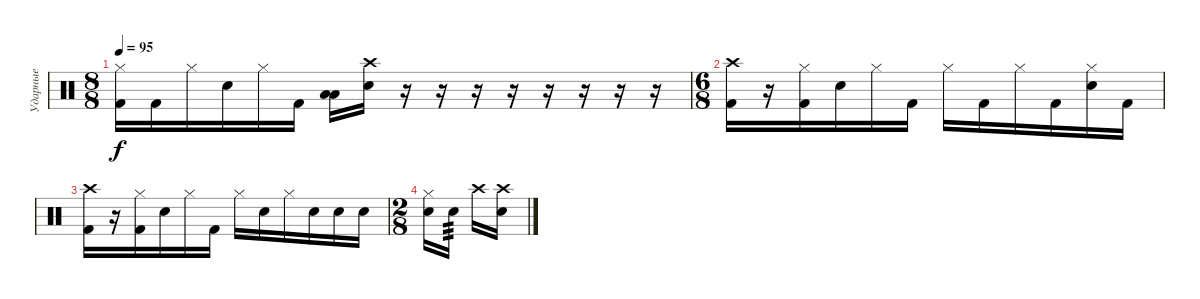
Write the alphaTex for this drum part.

\track ("Ударные" "Ударные") {instrument percussion}
\staff {score}
\articulation defaults
\ts (8 8)
\tempo 95
\clef neutral
\ks c
("Kick (hit) 2" "Hi-Hat (closed)").16{dy f} "Kick (hit) 2".16 "Hi-Hat (closed)".16 "Snare (hit) 2".16 "Hi-Hat (closed)".16 "Kick (hit) 2".16 ("Low Floor Tom (hit)" "Low Tom (hit)").16 ("Snare (hit) 2" "Crash high (hit)").16 r.16 r.16 r.16 r.16 r.16 r.16 r.16 r.16 |
\ts (6 8)
("Kick (hit) 2" "Crash high (hit)").16 r.16 ("Kick (hit) 2" "Hi-Hat (closed)").16 "Snare (hit) 2".16 "Hi-Hat (closed)".16 "Kick (hit) 2".16 "Hi-Hat (closed)".16 "Kick (hit) 2".16 "Hi-Hat (closed)".16 "Kick (hit) 2".16 ("Snare (hit) 2" "Hi-Hat (closed)").16 "Kick (hit) 2".16 |
("Kick (hit) 2" "Crash high (hit)").16 r.16 ("Kick (hit) 2" "Hi-Hat (closed)").16 "Snare (hit) 2".16 "Hi-Hat (closed)".16 "Kick (hit) 2".16 "Hi-Hat (closed)".16 "Snare (hit) 2".16 "Hi-Hat (closed)".16 "Snare (hit) 2".16 "Snare (hit) 2".16 "Snare (hit) 2".16 |
\ts (2 8)
("Snare (hit) 2" "Hi-Hat (closed)").16 "Snare (hit) 2".16{tp 3} "Crash high (hit)".16 ("Snare (hit) 2" "Crash high (hit)").16
